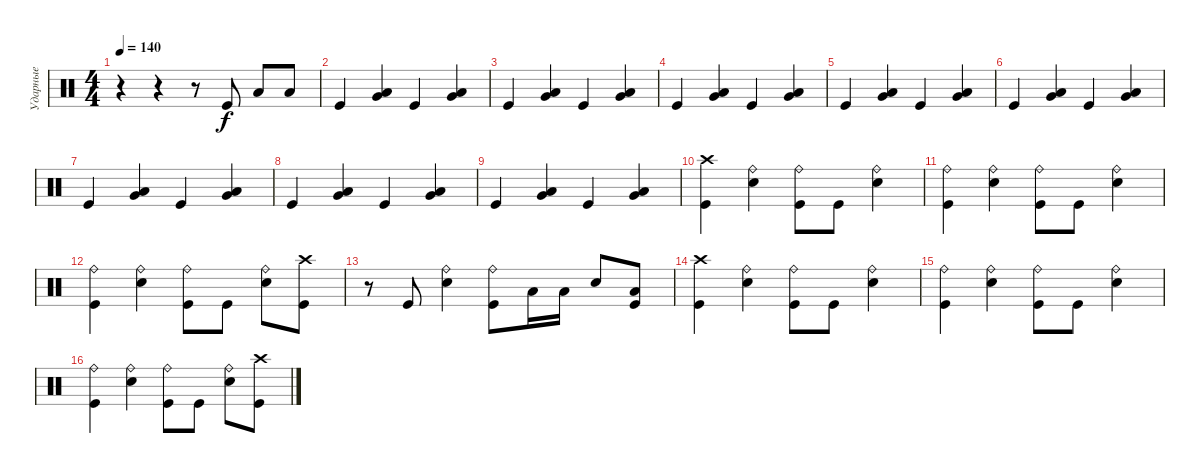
\track ("Ударные" "Ударные") {instrument percussion}
\staff {score}
\articulation defaults
\ts (4 4)
\tempo 140
\clef neutral
\ks c
r.4{dy f} r.4 r.8 "Kick (hit)".8 "Low Tom (hit)".8 "Low Tom (hit)".8 |
"Kick (hit)".4 ("Low Tom (hit)" "Very Low Tom (hit)").4 "Kick (hit)".4 ("Low Tom (hit)" "Very Low Tom (hit)").4 |
"Kick (hit)".4 ("Low Tom (hit)" "Very Low Tom (hit)").4 "Kick (hit)".4 ("Low Tom (hit)" "Very Low Tom (hit)").4 |
"Kick (hit)".4 ("Low Tom (hit)" "Very Low Tom (hit)").4 "Kick (hit)".4 ("Low Tom (hit)" "Very Low Tom (hit)").4 |
"Kick (hit)".4 ("Low Tom (hit)" "Very Low Tom (hit)").4 "Kick (hit)".4 ("Low Tom (hit)" "Very Low Tom (hit)").4 |
"Kick (hit)".4 ("Low Tom (hit)" "Very Low Tom (hit)").4 "Kick (hit)".4 ("Low Tom (hit)" "Very Low Tom (hit)").4 |
"Kick (hit)".4 ("Low Tom (hit)" "Very Low Tom (hit)").4 "Kick (hit)".4 ("Low Tom (hit)" "Very Low Tom (hit)").4 |
"Kick (hit)".4 ("Low Tom (hit)" "Very Low Tom (hit)").4 "Kick (hit)".4 ("Low Tom (hit)" "Very Low Tom (hit)").4 |
"Kick (hit)".4 ("Low Tom (hit)" "Very Low Tom (hit)").4 "Kick (hit)".4 ("Low Tom (hit)" "Very Low Tom (hit)").4 |
("Crash high (hit)" "Kick (hit)").4 ("Ride (bell)" "Electric Snare (hit)").4 ("Ride (bell)" "Kick (hit)").8 "Kick (hit)".8 ("Ride (bell)" "Electric Snare (hit)").4 |
("Ride (bell)" "Kick (hit)").4 ("Ride (bell)" "Electric Snare (hit)").4 ("Ride (bell)" "Kick (hit)").8 "Kick (hit)".8 ("Ride (bell)" "Electric Snare (hit)").4 |
("Ride (bell)" "Kick (hit)").4 ("Ride (bell)" "Electric Snare (hit)").4 ("Ride (bell)" "Kick (hit)").8 "Kick (hit)".8 ("Ride (bell)" "Electric Snare (hit)").8 ("Crash high (hit)" "Kick (hit)").8 |
r.8 "Kick (hit)".8 ("Ride (bell)" "Electric Snare (hit)").4 ("Ride (bell)" "Kick (hit)").8 "Low Tom (hit)".16 "Low Tom (hit)".16 "Electric Snare (hit)".8 ("Low Tom (hit)" "Kick (hit)").8 |
("Crash high (hit)" "Kick (hit)").4 ("Ride (bell)" "Electric Snare (hit)").4 ("Ride (bell)" "Kick (hit)").8 "Kick (hit)".8 ("Ride (bell)" "Electric Snare (hit)").4 |
("Ride (bell)" "Kick (hit)").4 ("Ride (bell)" "Electric Snare (hit)").4 ("Ride (bell)" "Kick (hit)").8 "Kick (hit)".8 ("Ride (bell)" "Electric Snare (hit)").4 |
("Ride (bell)" "Kick (hit)").4 ("Ride (bell)" "Electric Snare (hit)").4 ("Ride (bell)" "Kick (hit)").8 "Kick (hit)".8 ("Ride (bell)" "Electric Snare (hit)").8 ("Crash high (hit)" "Kick (hit)").8
